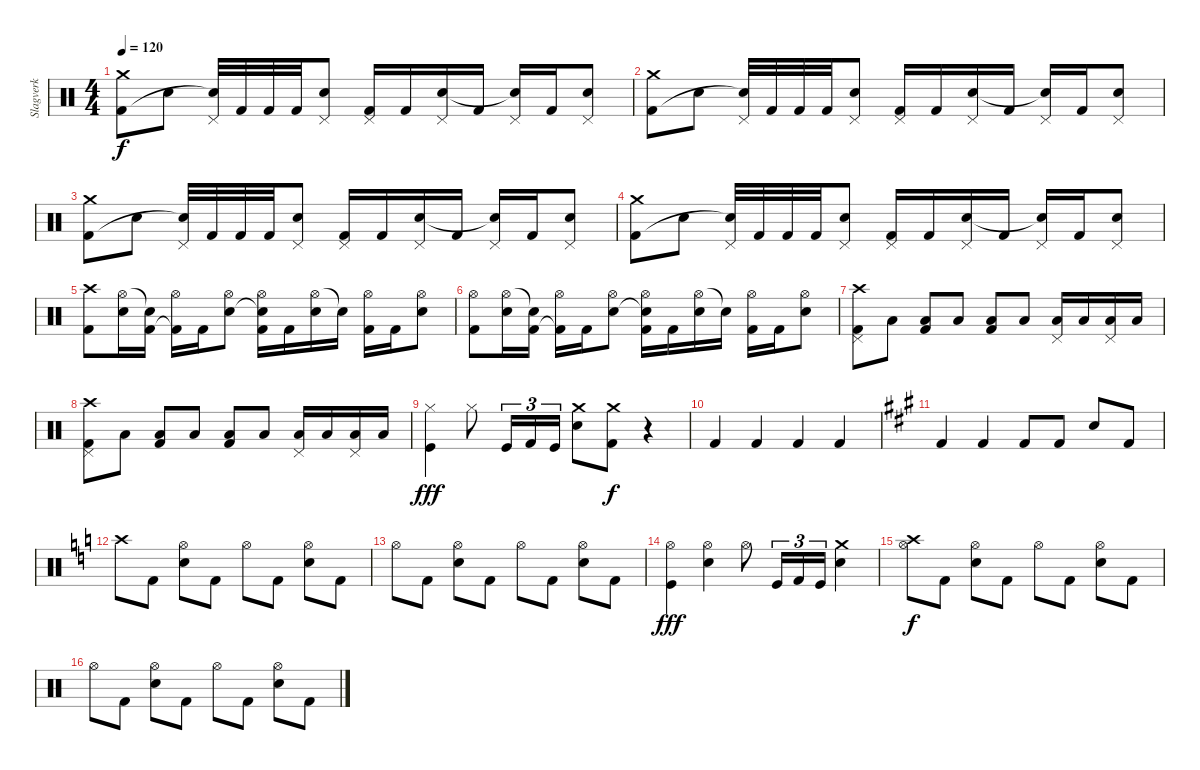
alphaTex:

\track ("Slagverk" "Slagverk") {instrument percussion}
\staff {score}
\articulation defaults
\ts (4 4)
\tempo 120
\clef neutral
\ks c
("Crash medium (hit)" "Kick (hit) 2").8{dy f} "Electric Snare (hit)".8 ("Pedal Hi-Hat (hit)" "Snare (hit)"{t}).32 "Kick (hit) 2".32 "Kick (hit) 2".32 "Kick (hit) 2".32 ("Pedal Hi-Hat (hit)" "Electric Snare (hit)").8 ("Pedal Hi-Hat (hit)" "Kick (hit) 2").16 "Kick (hit) 2".16 ("Pedal Hi-Hat (hit)" "Electric Snare (hit)").16 "Kick (hit) 2".16 ("Pedal Hi-Hat (hit)" "Snare (hit)"{t}).16 "Kick (hit) 2".16 ("Pedal Hi-Hat (hit)" "Electric Snare (hit)").8 |
("Crash medium (hit)" "Kick (hit) 2").8 "Electric Snare (hit)".8 ("Pedal Hi-Hat (hit)" "Snare (hit)"{t}).32 "Kick (hit) 2".32 "Kick (hit) 2".32 "Kick (hit) 2".32 ("Pedal Hi-Hat (hit)" "Electric Snare (hit)").8 ("Pedal Hi-Hat (hit)" "Kick (hit) 2").16 "Kick (hit) 2".16 ("Pedal Hi-Hat (hit)" "Electric Snare (hit)").16 "Kick (hit) 2".16 ("Pedal Hi-Hat (hit)" "Snare (hit)"{t}).16 "Kick (hit) 2".16 ("Pedal Hi-Hat (hit)" "Electric Snare (hit)").8 |
("Crash medium (hit)" "Kick (hit) 2").8 "Electric Snare (hit)".8 ("Pedal Hi-Hat (hit)" "Snare (hit)"{t}).32 "Kick (hit) 2".32 "Kick (hit) 2".32 "Kick (hit) 2".32 ("Pedal Hi-Hat (hit)" "Electric Snare (hit)").8 ("Pedal Hi-Hat (hit)" "Kick (hit) 2").16 "Kick (hit) 2".16 ("Pedal Hi-Hat (hit)" "Electric Snare (hit)").16 "Kick (hit) 2".16 ("Pedal Hi-Hat (hit)" "Snare (hit)"{t}).16 "Kick (hit) 2".16 ("Pedal Hi-Hat (hit)" "Electric Snare (hit)").8 |
("Crash medium (hit)" "Kick (hit) 2").8 "Electric Snare (hit)".8 ("Pedal Hi-Hat (hit)" "Snare (hit)"{t}).32 "Kick (hit) 2".32 "Kick (hit) 2".32 "Kick (hit) 2".32 ("Pedal Hi-Hat (hit)" "Electric Snare (hit)").8 ("Pedal Hi-Hat (hit)" "Kick (hit) 2").16 "Kick (hit) 2".16 ("Pedal Hi-Hat (hit)" "Electric Snare (hit)").16 "Kick (hit) 2".16 ("Pedal Hi-Hat (hit)" "Snare (hit)"{t}).16 "Kick (hit) 2".16 ("Pedal Hi-Hat (hit)" "Electric Snare (hit)").8 |
("Crash high (hit)" "Kick (hit) 2").8 ("Hi-Hat (open)" "Electric Snare (hit)").16 ("Snare (hit)"{t} "Kick (hit) 2").16 ("Hi-Hat (open)" "Kick (hit) 2"{t}).16 "Kick (hit) 2".16 ("Hi-Hat (open)" "Electric Snare (hit)").8 ("Hi-Hat (open)" "Snare (hit) 2"{t} "Kick (hit) 2").16 "Kick (hit) 2".16 ("Hi-Hat (open)" "Electric Snare (hit)").16 "Snare (hit) 2"{t}.16 ("Hi-Hat (open)" "Kick (hit) 2").16 "Kick (hit) 2".16 ("Hi-Hat (open)" "Electric Snare (hit)").8 |
("Hi-Hat (open)" "Kick (hit) 2").8 ("Hi-Hat (open)" "Electric Snare (hit)").16 ("Snare (hit)"{t} "Kick (hit) 2").16 ("Hi-Hat (open)" "Kick (hit) 2"{t}).16 "Kick (hit) 2".16 ("Hi-Hat (open)" "Electric Snare (hit)").8 ("Hi-Hat (open)" "Snare (hit) 2"{t} "Kick (hit) 2").16 "Kick (hit) 2".16 ("Hi-Hat (open)" "Electric Snare (hit)").16 "Snare (hit) 2"{t}.16 ("Hi-Hat (open)" "Kick (hit) 2").16 "Kick (hit) 2".16 ("Hi-Hat (open)" "Electric Snare (hit)").8 |
("Kick (hit) 2" "Crash high (hit)" "Pedal Hi-Hat (hit)").8 "Low Floor Tom (hit)".8 ("Low Floor Tom (hit)" "Kick (hit) 2").8 "Low Floor Tom (hit)".8 ("Low Floor Tom (hit)" "Kick (hit) 2").8 "Low Floor Tom (hit)".8 ("Low Tom (hit)" "Pedal Hi-Hat (hit)").16 "Low Tom (hit)".16 ("Low Floor Tom (hit)" "Pedal Hi-Hat (hit)").16 "Low Floor Tom (hit)".16 |
("Kick (hit) 2" "Crash high (hit)" "Pedal Hi-Hat (hit)").8 "Low Floor Tom (hit)".8 ("Low Floor Tom (hit)" "Kick (hit) 2").8 "Low Floor Tom (hit)".8 ("Low Floor Tom (hit)" "Kick (hit) 2").8 "Low Floor Tom (hit)".8 ("Low Tom (hit)" "Pedal Hi-Hat (hit)").16 "Low Tom (hit)".16 ("Low Floor Tom (hit)" "Pedal Hi-Hat (hit)").16 "Low Floor Tom (hit)".16 |
("Kick (hit)" "Hi-Hat (closed)").4{dy fff} "Hi-Hat (closed)".8 "Kick (hit)".16{tu (3 2)} "Kick (hit) 2".16{tu (3 2)} "Kick (hit)".16{tu (3 2)} ("Snare (hit) 2" "Crash medium (hit)").8 ("Kick (hit) 2" "Crash medium (hit)").8{dy f} r.4 |
"Kick (hit) 2".4 "Kick (hit) 2".4 "Kick (hit) 2".4 "Kick (hit) 2".4 |
\ks a "Kick (hit) 2".4 "Kick (hit) 2".4 "Kick (hit) 2".8 "Kick (hit) 2".8 "Snare (hit) 2".8 "Kick (hit) 2".8
|
\ks c "Crash high (hit)".8 "Kick (hit) 2".8
("Hi-Hat (open)" "Snare (hit) 2").8 "Kick (hit) 2".8 "Hi-Hat (open)".8 "Kick (hit) 2".8 ("Hi-Hat (open)" "Snare (hit) 2").8 "Kick (hit) 2".8 |
"Hi-Hat (open)".8 "Kick (hit) 2".8 ("Hi-Hat (open)" "Snare (hit) 2").8 "Kick (hit) 2".8 "Hi-Hat (open)".8 "Kick (hit) 2".8 ("Hi-Hat (open)" "Snare (hit) 2").8 "Kick (hit) 2".8 |
("Kick (hit)" "Hi-Hat (open)").4{dy fff} ("Snare (hit) 2" "Hi-Hat (open)").4 "Hi-Hat (open)".8 "Kick (hit)".16{tu (3 2)} "Kick (hit) 2".16{tu (3 2)} "Kick (hit)".16{tu (3 2)} ("Snare (hit) 2" "Crash medium (hit)").4 |
("Crash high (hit)" "Hi-Hat (open)").8{dy f} "Kick (hit) 2".8 ("Hi-Hat (open)" "Snare (hit) 2").8 "Kick (hit) 2".8 "Hi-Hat (open)".8 "Kick (hit) 2".8 ("Hi-Hat (open)" "Snare (hit) 2").8 "Kick (hit) 2".8 |
"Hi-Hat (open)".8 "Kick (hit) 2".8 ("Hi-Hat (open)" "Snare (hit) 2").8 "Kick (hit) 2".8 "Hi-Hat (open)".8 "Kick (hit) 2".8 ("Hi-Hat (open)" "Snare (hit) 2").8 "Kick (hit) 2".8
